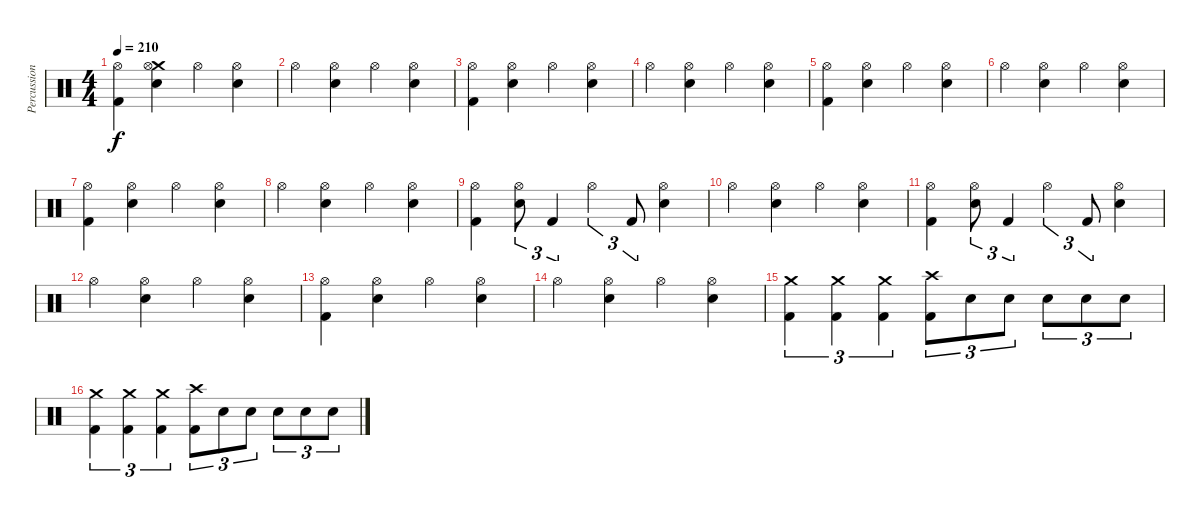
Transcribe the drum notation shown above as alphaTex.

\track ("Percussions" "Percussion") {instrument percussion}
\staff {score}
\articulation defaults
\ts (4 4)
\tempo 210
\clef neutral
\ks c
("Hi-Hat (open)" "Kick (hit) 2").4{dy f} ("Crash medium (hit)" "Snare (hit) 2" "Hi-Hat (open)").4 "Hi-Hat (open)".4 ("Snare (hit) 2" "Hi-Hat (open)").4 |
"Hi-Hat (open)".4 ("Snare (hit) 2" "Hi-Hat (open)").4 "Hi-Hat (open)".4 ("Snare (hit) 2" "Hi-Hat (open)").4 |
("Hi-Hat (open)" "Kick (hit) 2").4 ("Snare (hit) 2" "Hi-Hat (open)").4 "Hi-Hat (open)".4 ("Snare (hit) 2" "Hi-Hat (open)").4 |
"Hi-Hat (open)".4 ("Snare (hit) 2" "Hi-Hat (open)").4 "Hi-Hat (open)".4 ("Snare (hit) 2" "Hi-Hat (open)").4 |
("Hi-Hat (open)" "Kick (hit) 2").4 ("Snare (hit) 2" "Hi-Hat (open)").4 "Hi-Hat (open)".4 ("Snare (hit) 2" "Hi-Hat (open)").4 |
"Hi-Hat (open)".4 ("Snare (hit) 2" "Hi-Hat (open)").4 "Hi-Hat (open)".4 ("Snare (hit) 2" "Hi-Hat (open)").4 |
("Hi-Hat (open)" "Kick (hit) 2").4 ("Snare (hit) 2" "Hi-Hat (open)").4 "Hi-Hat (open)".4 ("Snare (hit) 2" "Hi-Hat (open)").4 |
"Hi-Hat (open)".4 ("Snare (hit) 2" "Hi-Hat (open)").4 "Hi-Hat (open)".4 ("Snare (hit) 2" "Hi-Hat (open)").4 |
("Hi-Hat (open)" "Kick (hit) 2").4 ("Snare (hit) 2" "Hi-Hat (open)").8{tu (3 2)} "Kick (hit) 2".4{tu (3 2)} "Hi-Hat (open)".4{tu (3 2)} "Kick (hit) 2".8{tu (3 2)} ("Snare (hit) 2" "Hi-Hat (open)").4 |
"Hi-Hat (open)".4 ("Snare (hit) 2" "Hi-Hat (open)").4 "Hi-Hat (open)".4 ("Snare (hit) 2" "Hi-Hat (open)").4 |
("Hi-Hat (open)" "Kick (hit) 2").4 ("Snare (hit) 2" "Hi-Hat (open)").8{tu (3 2)} "Kick (hit) 2".4{tu (3 2)} "Hi-Hat (open)".4{tu (3 2)} "Kick (hit) 2".8{tu (3 2)} ("Snare (hit) 2" "Hi-Hat (open)").4 |
"Hi-Hat (open)".4 ("Snare (hit) 2" "Hi-Hat (open)").4 "Hi-Hat (open)".4 ("Snare (hit) 2" "Hi-Hat (open)").4 |
("Hi-Hat (open)" "Kick (hit) 2").4 ("Snare (hit) 2" "Hi-Hat (open)").4 "Hi-Hat (open)".4 ("Snare (hit) 2" "Hi-Hat (open)").4 |
"Hi-Hat (open)".4 ("Snare (hit) 2" "Hi-Hat (open)").4 "Hi-Hat (open)".4 ("Snare (hit) 2" "Hi-Hat (open)").4 |
("Crash medium (hit)" "Kick (hit) 2").4{tu (3 2)} ("Crash medium (hit)" "Kick (hit) 2").4{tu (3 2)} ("Crash medium (hit)" "Kick (hit) 2").4{tu (3 2)} ("Crash high (hit)" "Kick (hit) 2").8{tu (3 2)} "Snare (hit) 2".8{tu (3 2)} "Snare (hit) 2".8{tu (3 2)} "Snare (hit) 2".8{tu (3 2)} "Snare (hit) 2".8{tu (3 2)} "Snare (hit) 2".8{tu (3 2)} |
("Crash medium (hit)" "Kick (hit) 2").4{tu (3 2)} ("Crash medium (hit)" "Kick (hit) 2").4{tu (3 2)} ("Crash medium (hit)" "Kick (hit) 2").4{tu (3 2)} ("Crash high (hit)" "Kick (hit) 2").8{tu (3 2)} "Snare (hit) 2".8{tu (3 2)} "Snare (hit) 2".8{tu (3 2)} "Snare (hit) 2".8{tu (3 2)} "Snare (hit) 2".8{tu (3 2)} "Snare (hit) 2".8{tu (3 2)}
